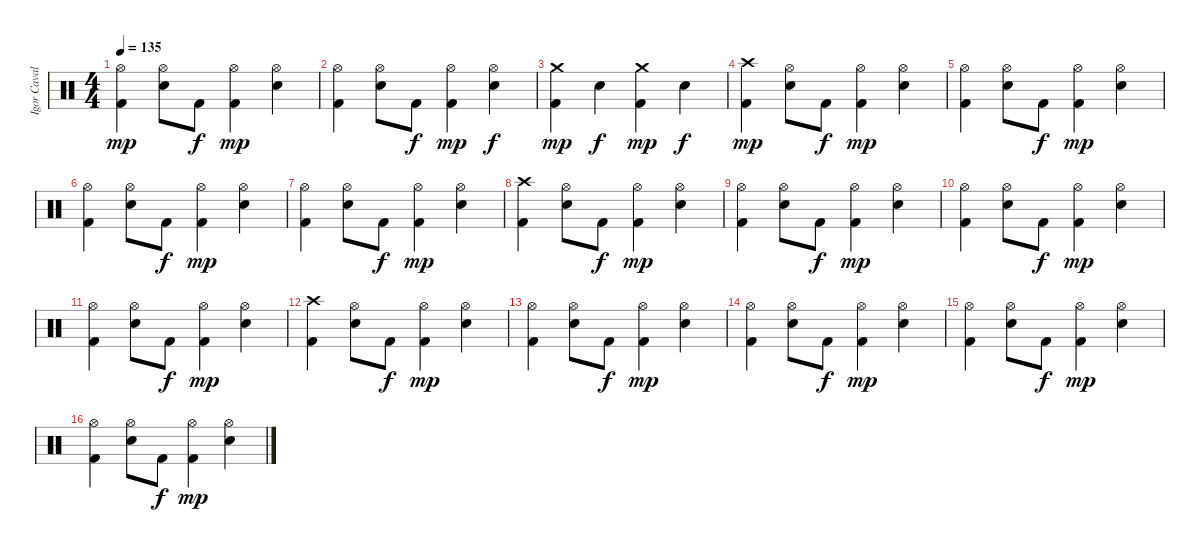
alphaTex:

\track ("Igor Cavalera" "Igor Caval") {instrument percussion}
\staff {score}
\articulation defaults
\ts (4 4)
\tempo 135
\clef neutral
\ks c
("Hi-Hat (open)" "Kick (hit) 2").4{dy mp} ("Hi-Hat (open)" "Electric Snare (hit)").8 "Kick (hit) 2".8{dy f} ("Hi-Hat (open)" "Kick (hit) 2").4{dy mp} ("Hi-Hat (open)" "Electric Snare (hit)").4 |
("Hi-Hat (open)" "Kick (hit) 2").4 ("Hi-Hat (open)" "Electric Snare (hit)").8 "Kick (hit) 2".8{dy f} ("Hi-Hat (open)" "Kick (hit) 2").4{dy mp} ("Hi-Hat (open)" "Snare (hit) 2").4{dy f} |
("Crash medium (hit)" "Kick (hit) 2").4{dy mp} "Electric Snare (hit)".4{dy f} ("Crash medium (hit)" "Kick (hit) 2").4{dy mp} "Electric Snare (hit)".4{dy f} |
("Crash high (hit)" "Kick (hit) 2").4{dy mp} ("Hi-Hat (open)" "Electric Snare (hit)").8 "Kick (hit) 2".8{dy f} ("Hi-Hat (open)" "Kick (hit) 2").4{dy mp} ("Hi-Hat (open)" "Electric Snare (hit)").4 |
("Hi-Hat (open)" "Kick (hit) 2").4 ("Hi-Hat (open)" "Electric Snare (hit)").8 "Kick (hit) 2".8{dy f} ("Hi-Hat (open)" "Kick (hit) 2").4{dy mp} ("Hi-Hat (open)" "Electric Snare (hit)").4 |
("Hi-Hat (open)" "Kick (hit) 2").4 ("Hi-Hat (open)" "Electric Snare (hit)").8 "Kick (hit) 2".8{dy f} ("Hi-Hat (open)" "Kick (hit) 2").4{dy mp} ("Hi-Hat (open)" "Electric Snare (hit)").4 |
("Hi-Hat (open)" "Kick (hit) 2").4 ("Hi-Hat (open)" "Electric Snare (hit)").8 "Kick (hit) 2".8{dy f} ("Hi-Hat (open)" "Kick (hit) 2").4{dy mp} ("Hi-Hat (open)" "Electric Snare (hit)").4 |
("Crash high (hit)" "Kick (hit) 2").4 ("Hi-Hat (open)" "Electric Snare (hit)").8 "Kick (hit) 2".8{dy f} ("Hi-Hat (open)" "Kick (hit) 2").4{dy mp} ("Hi-Hat (open)" "Electric Snare (hit)").4 |
("Hi-Hat (open)" "Kick (hit) 2").4 ("Hi-Hat (open)" "Electric Snare (hit)").8 "Kick (hit) 2".8{dy f} ("Hi-Hat (open)" "Kick (hit) 2").4{dy mp} ("Hi-Hat (open)" "Electric Snare (hit)").4 |
("Hi-Hat (open)" "Kick (hit) 2").4 ("Hi-Hat (open)" "Electric Snare (hit)").8 "Kick (hit) 2".8{dy f} ("Hi-Hat (open)" "Kick (hit) 2").4{dy mp} ("Hi-Hat (open)" "Electric Snare (hit)").4 |
("Hi-Hat (open)" "Kick (hit) 2").4 ("Hi-Hat (open)" "Electric Snare (hit)").8 "Kick (hit) 2".8{dy f} ("Hi-Hat (open)" "Kick (hit) 2").4{dy mp} ("Hi-Hat (open)" "Electric Snare (hit)").4 |
("Crash high (hit)" "Kick (hit) 2").4 ("Hi-Hat (open)" "Electric Snare (hit)").8 "Kick (hit) 2".8{dy f} ("Hi-Hat (open)" "Kick (hit) 2").4{dy mp} ("Hi-Hat (open)" "Electric Snare (hit)").4 |
("Hi-Hat (open)" "Kick (hit) 2").4 ("Hi-Hat (open)" "Electric Snare (hit)").8 "Kick (hit) 2".8{dy f} ("Hi-Hat (open)" "Kick (hit) 2").4{dy mp} ("Hi-Hat (open)" "Electric Snare (hit)").4 |
("Hi-Hat (open)" "Kick (hit) 2").4 ("Hi-Hat (open)" "Electric Snare (hit)").8 "Kick (hit) 2".8{dy f} ("Hi-Hat (open)" "Kick (hit) 2").4{dy mp} ("Hi-Hat (open)" "Electric Snare (hit)").4 |
("Hi-Hat (open)" "Kick (hit) 2").4 ("Hi-Hat (open)" "Electric Snare (hit)").8 "Kick (hit) 2".8{dy f} ("Hi-Hat (open)" "Kick (hit) 2").4{dy mp} ("Hi-Hat (open)" "Electric Snare (hit)").4 |
("Hi-Hat (open)" "Kick (hit) 2").4 ("Hi-Hat (open)" "Electric Snare (hit)").8 "Kick (hit) 2".8{dy f} ("Hi-Hat (open)" "Kick (hit) 2").4{dy mp} ("Hi-Hat (open)" "Electric Snare (hit)").4
